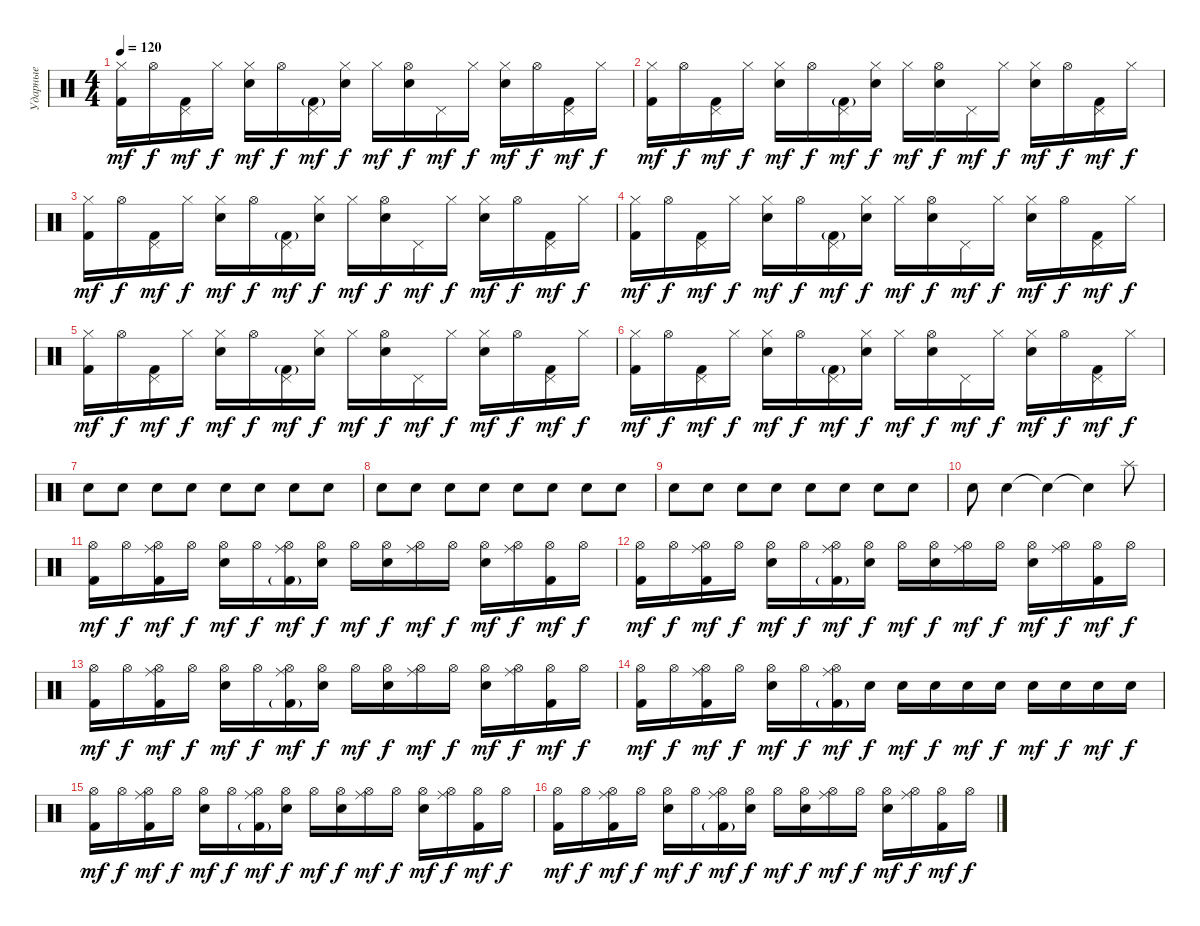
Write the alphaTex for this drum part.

\track ("Ударные" "Ударные") {instrument percussion}
\staff {score}
\articulation defaults
\ts (4 4)
\tempo 120
\clef neutral
\ks c
("Kick (hit) 2" "Hi-Hat (closed)").16{dy mf} "Hi-Hat (open)".16{dy f} ("Kick (hit) 2" "Pedal Hi-Hat (hit)").16{dy mf} "Hi-Hat (closed)".16{dy f} ("Snare (hit) 2" "Hi-Hat (closed)").16{dy mf} "Hi-Hat (open)".16{dy f} ("Kick (hit) 2"{g} "Pedal Hi-Hat (hit)").16{dy mf} ("Snare (hit) 2" "Hi-Hat (closed)").16{dy f} "Hi-Hat (closed)".16{dy mf} ("Snare (hit) 2" "Hi-Hat (open)").16{dy f} "Pedal Hi-Hat (hit)".16{dy mf} "Hi-Hat (closed)".16{dy f} ("Snare (hit) 2" "Hi-Hat (closed)").16{dy mf} "Hi-Hat (open)".16{dy f} ("Kick (hit) 2" "Pedal Hi-Hat (hit)").16{dy mf} "Hi-Hat (closed)".16{dy f} |
("Kick (hit) 2" "Hi-Hat (closed)").16{dy mf} "Hi-Hat (open)".16{dy f} ("Kick (hit) 2" "Pedal Hi-Hat (hit)").16{dy mf} "Hi-Hat (closed)".16{dy f} ("Snare (hit) 2" "Hi-Hat (closed)").16{dy mf} "Hi-Hat (open)".16{dy f} ("Kick (hit) 2"{g} "Pedal Hi-Hat (hit)").16{dy mf} ("Snare (hit) 2" "Hi-Hat (closed)").16{dy f} "Hi-Hat (closed)".16{dy mf} ("Snare (hit) 2" "Hi-Hat (open)").16{dy f} "Pedal Hi-Hat (hit)".16{dy mf} "Hi-Hat (closed)".16{dy f} ("Snare (hit) 2" "Hi-Hat (closed)").16{dy mf} "Hi-Hat (open)".16{dy f} ("Kick (hit) 2" "Pedal Hi-Hat (hit)").16{dy mf} "Hi-Hat (closed)".16{dy f} |
("Kick (hit) 2" "Hi-Hat (closed)").16{dy mf} "Hi-Hat (open)".16{dy f} ("Kick (hit) 2" "Pedal Hi-Hat (hit)").16{dy mf} "Hi-Hat (closed)".16{dy f} ("Snare (hit) 2" "Hi-Hat (closed)").16{dy mf} "Hi-Hat (open)".16{dy f} ("Kick (hit) 2"{g} "Pedal Hi-Hat (hit)").16{dy mf} ("Snare (hit) 2" "Hi-Hat (closed)").16{dy f} "Hi-Hat (closed)".16{dy mf} ("Snare (hit) 2" "Hi-Hat (open)").16{dy f} "Pedal Hi-Hat (hit)".16{dy mf} "Hi-Hat (closed)".16{dy f} ("Snare (hit) 2" "Hi-Hat (closed)").16{dy mf} "Hi-Hat (open)".16{dy f} ("Kick (hit) 2" "Pedal Hi-Hat (hit)").16{dy mf} "Hi-Hat (closed)".16{dy f} |
("Kick (hit) 2" "Hi-Hat (closed)").16{dy mf} "Hi-Hat (open)".16{dy f} ("Kick (hit) 2" "Pedal Hi-Hat (hit)").16{dy mf} "Hi-Hat (closed)".16{dy f} ("Snare (hit) 2" "Hi-Hat (closed)").16{dy mf} "Hi-Hat (open)".16{dy f} ("Kick (hit) 2"{g} "Pedal Hi-Hat (hit)").16{dy mf} ("Snare (hit) 2" "Hi-Hat (closed)").16{dy f} "Hi-Hat (closed)".16{dy mf} ("Snare (hit) 2" "Hi-Hat (open)").16{dy f} "Pedal Hi-Hat (hit)".16{dy mf} "Hi-Hat (closed)".16{dy f} ("Snare (hit) 2" "Hi-Hat (closed)").16{dy mf} "Hi-Hat (open)".16{dy f} ("Kick (hit) 2" "Pedal Hi-Hat (hit)").16{dy mf} "Hi-Hat (closed)".16{dy f} |
("Kick (hit) 2" "Hi-Hat (closed)").16{dy mf} "Hi-Hat (open)".16{dy f} ("Kick (hit) 2" "Pedal Hi-Hat (hit)").16{dy mf} "Hi-Hat (closed)".16{dy f} ("Snare (hit) 2" "Hi-Hat (closed)").16{dy mf} "Hi-Hat (open)".16{dy f} ("Kick (hit) 2"{g} "Pedal Hi-Hat (hit)").16{dy mf} ("Snare (hit) 2" "Hi-Hat (closed)").16{dy f} "Hi-Hat (closed)".16{dy mf} ("Snare (hit) 2" "Hi-Hat (open)").16{dy f} "Pedal Hi-Hat (hit)".16{dy mf} "Hi-Hat (closed)".16{dy f} ("Snare (hit) 2" "Hi-Hat (closed)").16{dy mf} "Hi-Hat (open)".16{dy f} ("Kick (hit) 2" "Pedal Hi-Hat (hit)").16{dy mf} "Hi-Hat (closed)".16{dy f} |
("Kick (hit) 2" "Hi-Hat (closed)").16{dy mf} "Hi-Hat (open)".16{dy f} ("Kick (hit) 2" "Pedal Hi-Hat (hit)").16{dy mf} "Hi-Hat (closed)".16{dy f} ("Snare (hit) 2" "Hi-Hat (closed)").16{dy mf} "Hi-Hat (open)".16{dy f} ("Kick (hit) 2"{g} "Pedal Hi-Hat (hit)").16{dy mf} ("Snare (hit) 2" "Hi-Hat (closed)").16{dy f} "Hi-Hat (closed)".16{dy mf} ("Snare (hit) 2" "Hi-Hat (open)").16{dy f} "Pedal Hi-Hat (hit)".16{dy mf} "Hi-Hat (closed)".16{dy f} ("Snare (hit) 2" "Hi-Hat (closed)").16{dy mf} "Hi-Hat (open)".16{dy f} ("Kick (hit) 2" "Pedal Hi-Hat (hit)").16{dy mf} "Hi-Hat (closed)".16{dy f} |
"Snare (hit) 2".8 "Snare (hit) 2".8 "Snare (hit) 2".8 "Snare (hit) 2".8 "Snare (hit) 2".8 "Snare (hit) 2".8 "Snare (hit) 2".8 "Snare (hit) 2".8 |
"Snare (hit) 2".8 "Snare (hit) 2".8 "Snare (hit) 2".8 "Snare (hit) 2".8 "Snare (hit) 2".8 "Snare (hit) 2".8 "Snare (hit) 2".8 "Snare (hit) 2".8 |
"Snare (hit) 2".8 "Snare (hit) 2".8 "Snare (hit) 2".8 "Snare (hit) 2".8 "Snare (hit) 2".8 "Snare (hit) 2".8 "Snare (hit) 2".8 "Snare (hit) 2".8 |
"Snare (hit) 2".8 "Snare (hit) 2".4 "Snare (hit)"{t}.4 "Snare (hit)"{t}.4 "Splash (hit)".8 |
("Kick (hit) 2" "Hi-Hat (open)").16{dy mf} "Hi-Hat (open)".16{dy f} ("Kick (hit) 2" "Hi-Hat (open)" "Ride (middle)").16{dy mf} "Hi-Hat (open)".16{dy f} ("Snare (hit) 2" "Hi-Hat (open)").16{dy mf} "Hi-Hat (open)".16{dy f} ("Kick (hit) 2"{g} "Hi-Hat (open)" "Ride (middle)").16{dy mf} ("Snare (hit) 2" "Hi-Hat (open)").16{dy f} "Hi-Hat (open)".16{dy mf} ("Snare (hit) 2" "Hi-Hat (open)").16{dy f} ("Hi-Hat (open)" "Ride (middle)").16{dy mf} "Hi-Hat (open)".16{dy f} ("Snare (hit) 2" "Hi-Hat (open)").16{dy mf} ("Hi-Hat (open)" "Ride (middle)").16{dy f} ("Kick (hit) 2" "Hi-Hat (open)").16{dy mf} "Hi-Hat (open)".16{dy f} |
("Kick (hit) 2" "Hi-Hat (open)").16{dy mf} "Hi-Hat (open)".16{dy f} ("Kick (hit) 2" "Hi-Hat (open)" "Ride (middle)").16{dy mf} "Hi-Hat (open)".16{dy f} ("Snare (hit) 2" "Hi-Hat (open)").16{dy mf} "Hi-Hat (open)".16{dy f} ("Kick (hit) 2"{g} "Hi-Hat (open)" "Ride (middle)").16{dy mf} ("Snare (hit) 2" "Hi-Hat (open)").16{dy f} "Hi-Hat (open)".16{dy mf} ("Snare (hit) 2" "Hi-Hat (open)").16{dy f} ("Hi-Hat (open)" "Ride (middle)").16{dy mf} "Hi-Hat (open)".16{dy f} ("Snare (hit) 2" "Hi-Hat (open)").16{dy mf} ("Hi-Hat (open)" "Ride (middle)").16{dy f} ("Kick (hit) 2" "Hi-Hat (open)").16{dy mf} "Hi-Hat (open)".16{dy f} |
("Kick (hit) 2" "Hi-Hat (open)").16{dy mf} "Hi-Hat (open)".16{dy f} ("Kick (hit) 2" "Hi-Hat (open)" "Ride (middle)").16{dy mf} "Hi-Hat (open)".16{dy f} ("Snare (hit) 2" "Hi-Hat (open)").16{dy mf} "Hi-Hat (open)".16{dy f} ("Kick (hit) 2"{g} "Hi-Hat (open)" "Ride (middle)").16{dy mf} ("Snare (hit) 2" "Hi-Hat (open)").16{dy f} "Hi-Hat (open)".16{dy mf} ("Snare (hit) 2" "Hi-Hat (open)").16{dy f} ("Hi-Hat (open)" "Ride (middle)").16{dy mf} "Hi-Hat (open)".16{dy f} ("Snare (hit) 2" "Hi-Hat (open)").16{dy mf} ("Hi-Hat (open)" "Ride (middle)").16{dy f} ("Kick (hit) 2" "Hi-Hat (open)").16{dy mf} "Hi-Hat (open)".16{dy f} |
("Kick (hit) 2" "Hi-Hat (open)").16{dy mf} "Hi-Hat (open)".16{dy f} ("Kick (hit) 2" "Hi-Hat (open)" "Ride (middle)").16{dy mf} "Hi-Hat (open)".16{dy f} ("Snare (hit) 2" "Hi-Hat (open)").16{dy mf} "Hi-Hat (open)".16{dy f} ("Kick (hit) 2"{g} "Hi-Hat (open)" "Ride (middle)").16{dy mf} "Snare (hit) 2".16{dy f} "Snare (hit) 2".16{dy mf} "Snare (hit) 2".16{dy f} "Snare (hit) 2".16{dy mf} "Snare (hit) 2".16{dy f} "Snare (hit) 2".16{dy mf} "Snare (hit) 2".16{dy f} "Snare (hit) 2".16{dy mf} "Snare (hit) 2".16{dy f} |
("Kick (hit) 2" "Hi-Hat (open)").16{dy mf} "Hi-Hat (open)".16{dy f} ("Kick (hit) 2" "Hi-Hat (open)" "Ride (middle)").16{dy mf} "Hi-Hat (open)".16{dy f} ("Snare (hit) 2" "Hi-Hat (open)").16{dy mf} "Hi-Hat (open)".16{dy f} ("Kick (hit) 2"{g} "Hi-Hat (open)" "Ride (middle)").16{dy mf} ("Snare (hit) 2" "Hi-Hat (open)").16{dy f} "Hi-Hat (open)".16{dy mf} ("Snare (hit) 2" "Hi-Hat (open)").16{dy f} ("Hi-Hat (open)" "Ride (middle)").16{dy mf} "Hi-Hat (open)".16{dy f} ("Snare (hit) 2" "Hi-Hat (open)").16{dy mf} ("Hi-Hat (open)" "Ride (middle)").16{dy f} ("Kick (hit) 2" "Hi-Hat (open)").16{dy mf} "Hi-Hat (open)".16{dy f} |
("Kick (hit) 2" "Hi-Hat (open)").16{dy mf} "Hi-Hat (open)".16{dy f} ("Kick (hit) 2" "Hi-Hat (open)" "Ride (middle)").16{dy mf} "Hi-Hat (open)".16{dy f} ("Snare (hit) 2" "Hi-Hat (open)").16{dy mf} "Hi-Hat (open)".16{dy f} ("Kick (hit) 2"{g} "Hi-Hat (open)" "Ride (middle)").16{dy mf} ("Snare (hit) 2" "Hi-Hat (open)").16{dy f} "Hi-Hat (open)".16{dy mf} ("Snare (hit) 2" "Hi-Hat (open)").16{dy f} ("Hi-Hat (open)" "Ride (middle)").16{dy mf} "Hi-Hat (open)".16{dy f} ("Snare (hit) 2" "Hi-Hat (open)").16{dy mf} ("Hi-Hat (open)" "Ride (middle)").16{dy f} ("Kick (hit) 2" "Hi-Hat (open)").16{dy mf} "Hi-Hat (open)".16{dy f}
